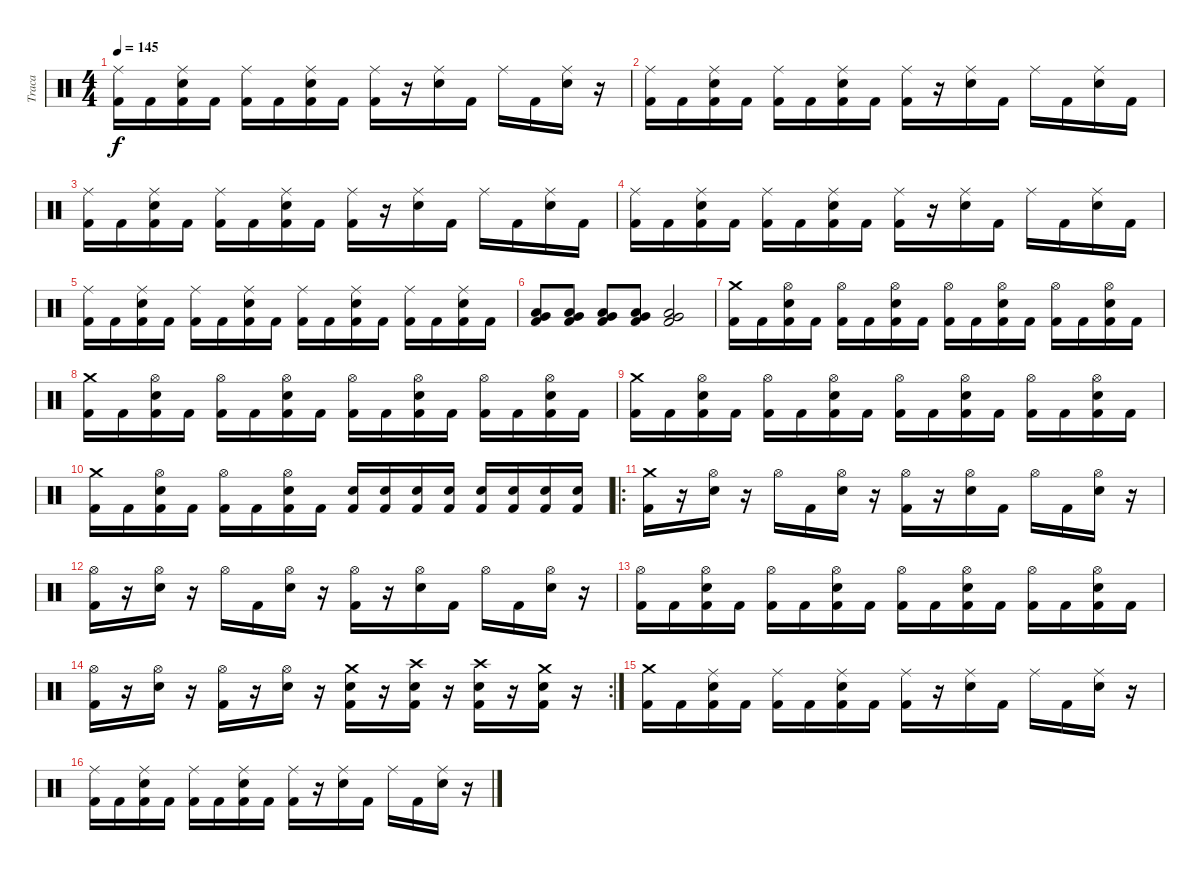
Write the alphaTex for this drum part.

\track ("Traca" "Traca") {instrument percussion}
\staff {score}
\articulation defaults
\ts (4 4)
\tempo 145
\clef neutral
\ks c
("Ride (middle)" "Kick (hit) 2").16{dy f} "Kick (hit) 2".16 ("Ride (middle)" "Snare (hit) 2" "Kick (hit) 2").16 "Kick (hit) 2".16 ("Ride (middle)" "Kick (hit) 2").16 "Kick (hit) 2".16 ("Ride (middle)" "Snare (hit) 2" "Kick (hit) 2").16 "Kick (hit) 2".16 ("Ride (middle)" "Kick (hit) 2").16 r.16 ("Ride (middle)" "Snare (hit) 2").16 "Kick (hit) 2".16 "Ride (middle)".16 "Kick (hit) 2".16 ("Ride (middle)" "Snare (hit) 2").16 r.16 |
("Ride (middle)" "Kick (hit) 2").16 "Kick (hit) 2".16 ("Ride (middle)" "Snare (hit) 2" "Kick (hit) 2").16 "Kick (hit) 2".16 ("Ride (middle)" "Kick (hit) 2").16 "Kick (hit) 2".16 ("Ride (middle)" "Snare (hit) 2" "Kick (hit) 2").16 "Kick (hit) 2".16 ("Ride (middle)" "Kick (hit) 2").16 r.16 ("Ride (middle)" "Snare (hit) 2").16 "Kick (hit) 2".16 "Ride (middle)".16 "Kick (hit) 2".16 ("Ride (middle)" "Snare (hit) 2").16 "Kick (hit) 2".16 |
("Ride (middle)" "Kick (hit) 2").16 "Kick (hit) 2".16 ("Ride (middle)" "Snare (hit) 2" "Kick (hit) 2").16 "Kick (hit) 2".16 ("Ride (middle)" "Kick (hit) 2").16 "Kick (hit) 2".16 ("Ride (middle)" "Snare (hit) 2" "Kick (hit) 2").16 "Kick (hit) 2".16 ("Ride (middle)" "Kick (hit) 2").16 r.16 ("Ride (middle)" "Snare (hit) 2").16 "Kick (hit) 2".16 "Ride (middle)".16 "Kick (hit) 2".16 ("Ride (middle)" "Snare (hit) 2").16 "Kick (hit) 2".16 |
("Ride (middle)" "Kick (hit) 2").16 "Kick (hit) 2".16 ("Ride (middle)" "Snare (hit) 2" "Kick (hit) 2").16 "Kick (hit) 2".16 ("Ride (middle)" "Kick (hit) 2").16 "Kick (hit) 2".16 ("Ride (middle)" "Snare (hit) 2" "Kick (hit) 2").16 "Kick (hit) 2".16 ("Ride (middle)" "Kick (hit) 2").16 r.16 ("Ride (middle)" "Snare (hit) 2").16 "Kick (hit) 2".16 "Ride (middle)".16 "Kick (hit) 2".16 ("Ride (middle)" "Snare (hit) 2").16 "Kick (hit) 2".16 |
("Ride (middle)" "Kick (hit) 2").16 "Kick (hit) 2".16 ("Ride (middle)" "Snare (hit) 2" "Kick (hit) 2").16 "Kick (hit) 2".16 ("Ride (middle)" "Kick (hit) 2").16 "Kick (hit) 2".16 ("Ride (middle)" "Snare (hit) 2" "Kick (hit) 2").16 "Kick (hit) 2".16 ("Ride (middle)" "Kick (hit) 2").16 "Kick (hit) 2".16 ("Ride (middle)" "Snare (hit) 2" "Kick (hit) 2").16 "Kick (hit) 2".16 ("Ride (middle)" "Kick (hit) 2").16 "Kick (hit) 2".16 ("Ride (middle)" "Snare (hit) 2" "Kick (hit) 2").16 "Kick (hit) 2".16 |
("Very Low Tom (hit)" "Low Floor Tom (hit)" "Kick (hit) 2").8 ("Very Low Tom (hit)" "Low Floor Tom (hit)" "Kick (hit) 2").8 ("Very Low Tom (hit)" "Low Floor Tom (hit)" "Kick (hit) 2").8 ("Very Low Tom (hit)" "Low Floor Tom (hit)" "Kick (hit) 2").8 ("Very Low Tom (hit)" "Low Floor Tom (hit)" "Kick (hit) 2").2 |
("Crash medium (hit)" "Kick (hit) 2").16 "Kick (hit) 2".16 ("Hi-Hat (open)" "Snare (hit) 2" "Kick (hit) 2").16 "Kick (hit) 2".16 ("Hi-Hat (open)" "Kick (hit) 2").16 "Kick (hit) 2".16 ("Hi-Hat (open)" "Snare (hit) 2" "Kick (hit) 2").16 "Kick (hit) 2".16 ("Hi-Hat (open)" "Kick (hit) 2").16 "Kick (hit) 2".16 ("Hi-Hat (open)" "Snare (hit) 2" "Kick (hit) 2").16 "Kick (hit) 2".16 ("Hi-Hat (open)" "Kick (hit) 2").16 "Kick (hit) 2".16 ("Hi-Hat (open)" "Snare (hit) 2" "Kick (hit) 2").16 "Kick (hit) 2".16 |
("Crash medium (hit)" "Kick (hit) 2").16 "Kick (hit) 2".16 ("Hi-Hat (open)" "Snare (hit) 2" "Kick (hit) 2").16 "Kick (hit) 2".16 ("Hi-Hat (open)" "Kick (hit) 2").16 "Kick (hit) 2".16 ("Hi-Hat (open)" "Snare (hit) 2" "Kick (hit) 2").16 "Kick (hit) 2".16 ("Hi-Hat (open)" "Kick (hit) 2").16 "Kick (hit) 2".16 ("Hi-Hat (open)" "Snare (hit) 2" "Kick (hit) 2").16 "Kick (hit) 2".16 ("Hi-Hat (open)" "Kick (hit) 2").16 "Kick (hit) 2".16 ("Hi-Hat (open)" "Snare (hit) 2" "Kick (hit) 2").16 "Kick (hit) 2".16 |
("Crash medium (hit)" "Kick (hit) 2").16 "Kick (hit) 2".16 ("Hi-Hat (open)" "Snare (hit) 2" "Kick (hit) 2").16 "Kick (hit) 2".16 ("Hi-Hat (open)" "Kick (hit) 2").16 "Kick (hit) 2".16 ("Hi-Hat (open)" "Snare (hit) 2" "Kick (hit) 2").16 "Kick (hit) 2".16 ("Hi-Hat (open)" "Kick (hit) 2").16 "Kick (hit) 2".16 ("Hi-Hat (open)" "Snare (hit) 2" "Kick (hit) 2").16 "Kick (hit) 2".16 ("Hi-Hat (open)" "Kick (hit) 2").16 "Kick (hit) 2".16 ("Hi-Hat (open)" "Snare (hit) 2" "Kick (hit) 2").16 "Kick (hit) 2".16 |
("Crash medium (hit)" "Kick (hit) 2").16 "Kick (hit) 2".16 ("Hi-Hat (open)" "Snare (hit) 2" "Kick (hit) 2").16 "Kick (hit) 2".16 ("Hi-Hat (open)" "Kick (hit) 2").16 "Kick (hit) 2".16 ("Hi-Hat (open)" "Snare (hit) 2" "Kick (hit) 2").16 "Kick (hit) 2".16 ("Snare (hit) 2" "Kick (hit) 2").16 ("Snare (hit) 2" "Kick (hit) 2").16 ("Snare (hit) 2" "Kick (hit) 2").16 ("Snare (hit) 2" "Kick (hit) 2").16 ("Snare (hit) 2" "Kick (hit) 2").16 ("Snare (hit) 2" "Kick (hit) 2").16 ("Snare (hit) 2" "Kick (hit) 2").16 ("Snare (hit) 2" "Kick (hit) 2").16 |
\ro
("Crash medium (hit)" "Kick (hit) 2").16 r.16 ("Hi-Hat (open)" "Snare (hit) 2").16 r.16 "Hi-Hat (open)".16 "Kick (hit) 2".16 ("Hi-Hat (open)" "Snare (hit) 2").16 r.16 ("Hi-Hat (open)" "Kick (hit) 2").16 r.16 ("Hi-Hat (open)" "Snare (hit) 2").16 "Kick (hit) 2".16 "Hi-Hat (open)".16 "Kick (hit) 2".16 ("Hi-Hat (open)" "Snare (hit) 2").16 r.16 |
("Hi-Hat (open)" "Kick (hit) 2").16 r.16 ("Hi-Hat (open)" "Snare (hit) 2").16 r.16 "Hi-Hat (open)".16 "Kick (hit) 2".16 ("Hi-Hat (open)" "Snare (hit) 2").16 r.16 ("Hi-Hat (open)" "Kick (hit) 2").16 r.16 ("Hi-Hat (open)" "Snare (hit) 2").16 "Kick (hit) 2".16 "Hi-Hat (open)".16 "Kick (hit) 2".16 ("Hi-Hat (open)" "Snare (hit) 2").16 r.16 |
("Hi-Hat (open)" "Kick (hit) 2").16 "Kick (hit) 2".16 ("Hi-Hat (open)" "Snare (hit) 2" "Kick (hit) 2").16 "Kick (hit) 2".16 ("Hi-Hat (open)" "Kick (hit) 2").16 "Kick (hit) 2".16 ("Hi-Hat (open)" "Snare (hit) 2" "Kick (hit) 2").16 "Kick (hit) 2".16 ("Hi-Hat (open)" "Kick (hit) 2").16 "Kick (hit) 2".16 ("Hi-Hat (open)" "Snare (hit) 2" "Kick (hit) 2").16 "Kick (hit) 2".16 ("Hi-Hat (open)" "Kick (hit) 2").16 "Kick (hit) 2".16 ("Hi-Hat (open)" "Snare (hit) 2" "Kick (hit) 2").16 "Kick (hit) 2".16 |
\rc 2
("Hi-Hat (open)" "Kick (hit) 2").16 r.16 ("Hi-Hat (open)" "Snare (hit) 2").16 r.16 ("Hi-Hat (open)" "Kick (hit) 2").16 r.16 ("Hi-Hat (open)" "Snare (hit) 2").16 r.16 ("Crash medium (hit)" "Snare (hit) 2" "Kick (hit) 2").16 r.16 ("Crash high (hit)" "Snare (hit) 2" "Kick (hit) 2").16 r.16 ("Crash high (hit)" "Snare (hit) 2" "Kick (hit) 2").16 r.16 ("Crash medium (hit)" "Snare (hit) 2" "Kick (hit) 2").16 r.16 |
("Crash medium (hit)" "Kick (hit) 2").16 "Kick (hit) 2".16 ("Ride (middle)" "Snare (hit) 2" "Kick (hit) 2").16 "Kick (hit) 2".16 ("Ride (middle)" "Kick (hit) 2").16 "Kick (hit) 2".16 ("Ride (middle)" "Snare (hit) 2" "Kick (hit) 2").16 "Kick (hit) 2".16 ("Ride (middle)" "Kick (hit) 2").16 r.16 ("Ride (middle)" "Snare (hit) 2").16 "Kick (hit) 2".16 "Ride (middle)".16 "Kick (hit) 2".16 ("Ride (middle)" "Snare (hit) 2").16 r.16 |
("Ride (middle)" "Kick (hit) 2").16 "Kick (hit) 2".16 ("Ride (middle)" "Snare (hit) 2" "Kick (hit) 2").16 "Kick (hit) 2".16 ("Ride (middle)" "Kick (hit) 2").16 "Kick (hit) 2".16 ("Ride (middle)" "Snare (hit) 2" "Kick (hit) 2").16 "Kick (hit) 2".16 ("Ride (middle)" "Kick (hit) 2").16 r.16 ("Ride (middle)" "Snare (hit) 2").16 "Kick (hit) 2".16 "Ride (middle)".16 "Kick (hit) 2".16 ("Ride (middle)" "Snare (hit) 2").16 r.16
